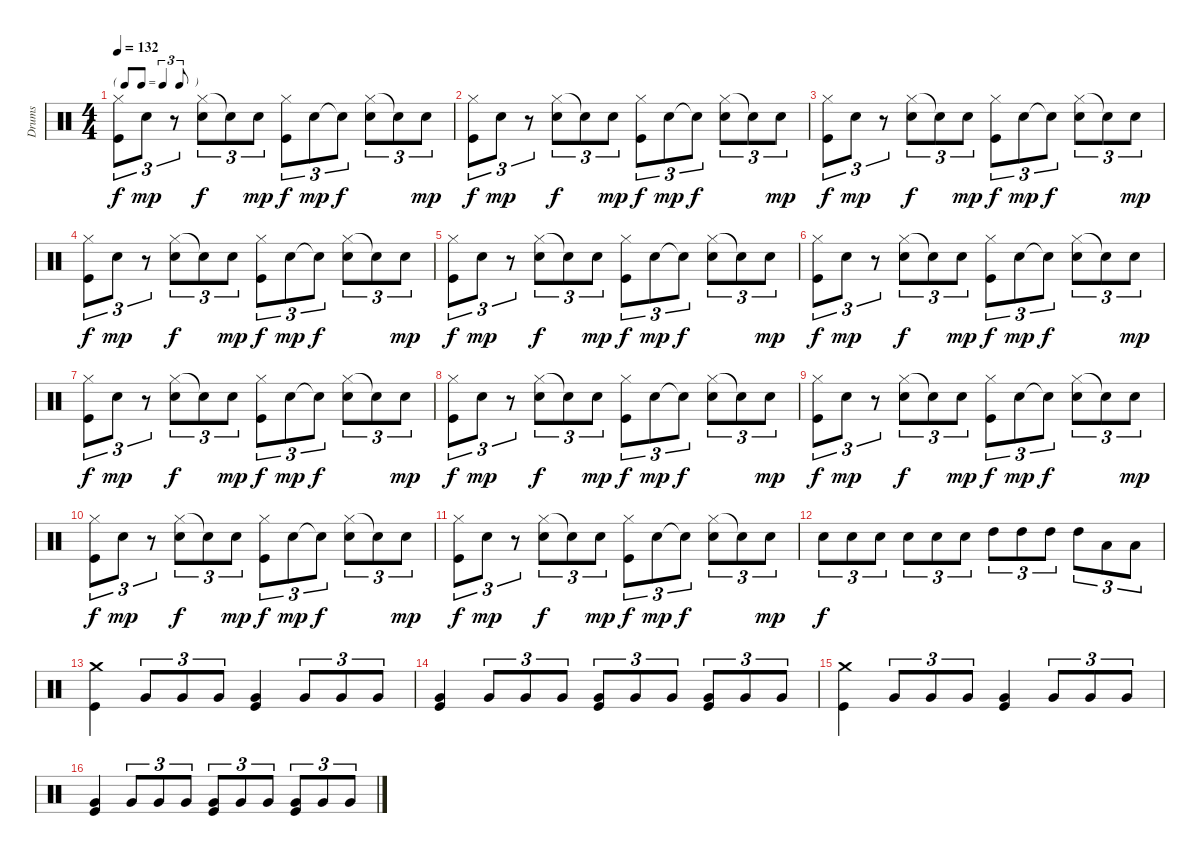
\track ("Drums" "Drums") {instrument percussion}
\staff {score}
\articulation defaults
\ts (4 4)
\tf triplet8th
\tempo 132
\clef neutral
\ks c
("Hi-Hat (closed)" "Kick (hit)").8{tu (3 2) dy f} "Electric Snare (hit)".8{tu (3 2) dy mp} r.8{tu (3 2)} ("Hi-Hat (closed)" "Electric Snare (hit)").8{tu (3 2) dy f} "Snare (hit)"{t}.8{tu (3 2)} "Electric Snare (hit)".8{tu (3 2) dy mp} ("Hi-Hat (closed)" "Kick (hit)").8{tu (3 2) dy f} "Electric Snare (hit)".8{tu (3 2) dy mp} "Snare (hit)"{t}.8{tu (3 2) dy f} ("Hi-Hat (closed)" "Electric Snare (hit)").8{tu (3 2)} "Snare (hit)"{t}.8{tu (3 2)} "Electric Snare (hit)".8{tu (3 2) dy mp} |
("Hi-Hat (closed)" "Kick (hit)").8{tu (3 2) dy f} "Electric Snare (hit)".8{tu (3 2) dy mp} r.8{tu (3 2)} ("Hi-Hat (closed)" "Electric Snare (hit)").8{tu (3 2) dy f} "Snare (hit)"{t}.8{tu (3 2)} "Electric Snare (hit)".8{tu (3 2) dy mp} ("Hi-Hat (closed)" "Kick (hit)").8{tu (3 2) dy f} "Electric Snare (hit)".8{tu (3 2) dy mp} "Snare (hit)"{t}.8{tu (3 2) dy f} ("Hi-Hat (closed)" "Electric Snare (hit)").8{tu (3 2)} "Snare (hit)"{t}.8{tu (3 2)} "Electric Snare (hit)".8{tu (3 2) dy mp} |
("Hi-Hat (closed)" "Kick (hit)").8{tu (3 2) dy f} "Electric Snare (hit)".8{tu (3 2) dy mp} r.8{tu (3 2)} ("Hi-Hat (closed)" "Electric Snare (hit)").8{tu (3 2) dy f} "Snare (hit)"{t}.8{tu (3 2)} "Electric Snare (hit)".8{tu (3 2) dy mp} ("Hi-Hat (closed)" "Kick (hit)").8{tu (3 2) dy f} "Electric Snare (hit)".8{tu (3 2) dy mp} "Snare (hit)"{t}.8{tu (3 2) dy f} ("Hi-Hat (closed)" "Electric Snare (hit)").8{tu (3 2)} "Snare (hit)"{t}.8{tu (3 2)} "Electric Snare (hit)".8{tu (3 2) dy mp} |
("Hi-Hat (closed)" "Kick (hit)").8{tu (3 2) dy f} "Electric Snare (hit)".8{tu (3 2) dy mp} r.8{tu (3 2)} ("Hi-Hat (closed)" "Electric Snare (hit)").8{tu (3 2) dy f} "Snare (hit)"{t}.8{tu (3 2)} "Electric Snare (hit)".8{tu (3 2) dy mp} ("Hi-Hat (closed)" "Kick (hit)").8{tu (3 2) dy f} "Electric Snare (hit)".8{tu (3 2) dy mp} "Snare (hit)"{t}.8{tu (3 2) dy f} ("Hi-Hat (closed)" "Electric Snare (hit)").8{tu (3 2)} "Snare (hit)"{t}.8{tu (3 2)} "Electric Snare (hit)".8{tu (3 2) dy mp} |
("Hi-Hat (closed)" "Kick (hit)").8{tu (3 2) dy f} "Electric Snare (hit)".8{tu (3 2) dy mp} r.8{tu (3 2)} ("Hi-Hat (closed)" "Electric Snare (hit)").8{tu (3 2) dy f} "Snare (hit)"{t}.8{tu (3 2)} "Electric Snare (hit)".8{tu (3 2) dy mp} ("Hi-Hat (closed)" "Kick (hit)").8{tu (3 2) dy f} "Electric Snare (hit)".8{tu (3 2) dy mp} "Snare (hit)"{t}.8{tu (3 2) dy f} ("Hi-Hat (closed)" "Electric Snare (hit)").8{tu (3 2)} "Snare (hit)"{t}.8{tu (3 2)} "Electric Snare (hit)".8{tu (3 2) dy mp} |
("Hi-Hat (closed)" "Kick (hit)").8{tu (3 2) dy f} "Electric Snare (hit)".8{tu (3 2) dy mp} r.8{tu (3 2)} ("Hi-Hat (closed)" "Electric Snare (hit)").8{tu (3 2) dy f} "Snare (hit)"{t}.8{tu (3 2)} "Electric Snare (hit)".8{tu (3 2) dy mp} ("Hi-Hat (closed)" "Kick (hit)").8{tu (3 2) dy f} "Electric Snare (hit)".8{tu (3 2) dy mp} "Snare (hit)"{t}.8{tu (3 2) dy f} ("Hi-Hat (closed)" "Electric Snare (hit)").8{tu (3 2)} "Snare (hit)"{t}.8{tu (3 2)} "Electric Snare (hit)".8{tu (3 2) dy mp} |
("Hi-Hat (closed)" "Kick (hit)").8{tu (3 2) dy f} "Electric Snare (hit)".8{tu (3 2) dy mp} r.8{tu (3 2)} ("Hi-Hat (closed)" "Electric Snare (hit)").8{tu (3 2) dy f} "Snare (hit)"{t}.8{tu (3 2)} "Electric Snare (hit)".8{tu (3 2) dy mp} ("Hi-Hat (closed)" "Kick (hit)").8{tu (3 2) dy f} "Electric Snare (hit)".8{tu (3 2) dy mp} "Snare (hit)"{t}.8{tu (3 2) dy f} ("Hi-Hat (closed)" "Electric Snare (hit)").8{tu (3 2)} "Snare (hit)"{t}.8{tu (3 2)} "Electric Snare (hit)".8{tu (3 2) dy mp} |
("Hi-Hat (closed)" "Kick (hit)").8{tu (3 2) dy f} "Electric Snare (hit)".8{tu (3 2) dy mp} r.8{tu (3 2)} ("Hi-Hat (closed)" "Electric Snare (hit)").8{tu (3 2) dy f} "Snare (hit)"{t}.8{tu (3 2)} "Electric Snare (hit)".8{tu (3 2) dy mp} ("Hi-Hat (closed)" "Kick (hit)").8{tu (3 2) dy f} "Electric Snare (hit)".8{tu (3 2) dy mp} "Snare (hit)"{t}.8{tu (3 2) dy f} ("Hi-Hat (closed)" "Electric Snare (hit)").8{tu (3 2)} "Snare (hit)"{t}.8{tu (3 2)} "Electric Snare (hit)".8{tu (3 2) dy mp} |
("Hi-Hat (closed)" "Kick (hit)").8{tu (3 2) dy f} "Electric Snare (hit)".8{tu (3 2) dy mp} r.8{tu (3 2)} ("Hi-Hat (closed)" "Electric Snare (hit)").8{tu (3 2) dy f} "Snare (hit)"{t}.8{tu (3 2)} "Electric Snare (hit)".8{tu (3 2) dy mp} ("Hi-Hat (closed)" "Kick (hit)").8{tu (3 2) dy f} "Electric Snare (hit)".8{tu (3 2) dy mp} "Snare (hit)"{t}.8{tu (3 2) dy f} ("Hi-Hat (closed)" "Electric Snare (hit)").8{tu (3 2)} "Snare (hit)"{t}.8{tu (3 2)} "Electric Snare (hit)".8{tu (3 2) dy mp} |
("Hi-Hat (closed)" "Kick (hit)").8{tu (3 2) dy f} "Electric Snare (hit)".8{tu (3 2) dy mp} r.8{tu (3 2)} ("Hi-Hat (closed)" "Electric Snare (hit)").8{tu (3 2) dy f} "Snare (hit)"{t}.8{tu (3 2)} "Electric Snare (hit)".8{tu (3 2) dy mp} ("Hi-Hat (closed)" "Kick (hit)").8{tu (3 2) dy f} "Electric Snare (hit)".8{tu (3 2) dy mp} "Snare (hit)"{t}.8{tu (3 2) dy f} ("Hi-Hat (closed)" "Electric Snare (hit)").8{tu (3 2)} "Snare (hit)"{t}.8{tu (3 2)} "Electric Snare (hit)".8{tu (3 2) dy mp} |
("Hi-Hat (closed)" "Kick (hit)").8{tu (3 2) dy f} "Electric Snare (hit)".8{tu (3 2) dy mp} r.8{tu (3 2)} ("Hi-Hat (closed)" "Electric Snare (hit)").8{tu (3 2) dy f} "Snare (hit)"{t}.8{tu (3 2)} "Electric Snare (hit)".8{tu (3 2) dy mp} ("Hi-Hat (closed)" "Kick (hit)").8{tu (3 2) dy f} "Electric Snare (hit)".8{tu (3 2) dy mp} "Snare (hit)"{t}.8{tu (3 2) dy f} ("Hi-Hat (closed)" "Electric Snare (hit)").8{tu (3 2)} "Snare (hit)"{t}.8{tu (3 2)} "Electric Snare (hit)".8{tu (3 2) dy mp} |
"Electric Snare (hit)".8{tu (3 2) dy f} "Electric Snare (hit)".8{tu (3 2)} "Electric Snare (hit)".8{tu (3 2)} "Electric Snare (hit)".8{tu (3 2)} "Electric Snare (hit)".8{tu (3 2)} "Electric Snare (hit)".8{tu (3 2)} "High Tom (hit)".8{tu (3 2)} "High Tom (hit)".8{tu (3 2)} "High Tom (hit)".8{tu (3 2)} "High Tom (hit)".8{tu (3 2)} "Low Tom (hit)".8{tu (3 2)} "Low Tom (hit)".8{tu (3 2)} |
("Crash medium (hit)" "Kick (hit)").4 "Very Low Tom (hit)".8{tu (3 2)} "Very Low Tom (hit)".8{tu (3 2)} "Very Low Tom (hit)".8{tu (3 2)} ("Very Low Tom (hit)" "Kick (hit)").4 "Very Low Tom (hit)".8{tu (3 2)} "Very Low Tom (hit)".8{tu (3 2)} "Very Low Tom (hit)".8{tu (3 2)} |
("Very Low Tom (hit)" "Kick (hit)").4 "Very Low Tom (hit)".8{tu (3 2)} "Very Low Tom (hit)".8{tu (3 2)} "Very Low Tom (hit)".8{tu (3 2)} ("Very Low Tom (hit)" "Kick (hit)").8{tu (3 2)} "Very Low Tom (hit)".8{tu (3 2)} "Very Low Tom (hit)".8{tu (3 2)} ("Very Low Tom (hit)" "Kick (hit)").8{tu (3 2)} "Very Low Tom (hit)".8{tu (3 2)} "Very Low Tom (hit)".8{tu (3 2)} |
("Crash medium (hit)" "Kick (hit)").4 "Very Low Tom (hit)".8{tu (3 2)} "Very Low Tom (hit)".8{tu (3 2)} "Very Low Tom (hit)".8{tu (3 2)} ("Very Low Tom (hit)" "Kick (hit)").4 "Very Low Tom (hit)".8{tu (3 2)} "Very Low Tom (hit)".8{tu (3 2)} "Very Low Tom (hit)".8{tu (3 2)} |
("Very Low Tom (hit)" "Kick (hit)").4 "Very Low Tom (hit)".8{tu (3 2)} "Very Low Tom (hit)".8{tu (3 2)} "Very Low Tom (hit)".8{tu (3 2)} ("Very Low Tom (hit)" "Kick (hit)").8{tu (3 2)} "Very Low Tom (hit)".8{tu (3 2)} "Very Low Tom (hit)".8{tu (3 2)} ("Very Low Tom (hit)" "Kick (hit)").8{tu (3 2)} "Very Low Tom (hit)".8{tu (3 2)} "Very Low Tom (hit)".8{tu (3 2)}
